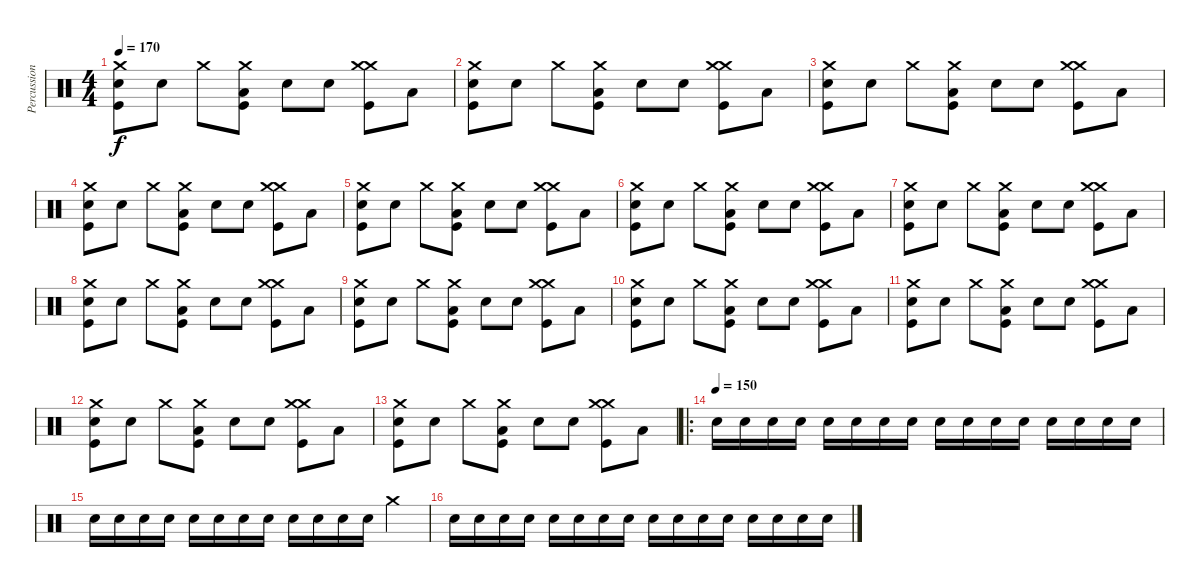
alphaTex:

\track ("Percussion" "Percussion") {instrument percussion}
\staff {score}
\articulation defaults
\ts (4 4)
\tempo 170
\clef neutral
\ks c
("Electric Snare (hit)" "Kick (hit)" "Crash medium (hit)").8{dy f} "Electric Snare (hit)".8 "Crash medium (hit)".8 ("Low Floor Tom (hit)" "Kick (hit)" "Crash medium (hit)").8 "Electric Snare (hit)".8 "Electric Snare (hit)".8 ("Crash medium (hit)" "Kick (hit)" "Crash medium (hit)").8 "Low Floor Tom (hit)".8 |
("Electric Snare (hit)" "Kick (hit)" "Crash medium (hit)").8 "Electric Snare (hit)".8 "Crash medium (hit)".8 ("Low Floor Tom (hit)" "Kick (hit)" "Crash medium (hit)").8 "Electric Snare (hit)".8 "Electric Snare (hit)".8 ("Crash medium (hit)" "Kick (hit)" "Crash medium (hit)").8 "Low Floor Tom (hit)".8 |
("Electric Snare (hit)" "Kick (hit)" "Crash medium (hit)").8 "Electric Snare (hit)".8 "Crash medium (hit)".8 ("Low Floor Tom (hit)" "Kick (hit)" "Crash medium (hit)").8 "Electric Snare (hit)".8 "Electric Snare (hit)".8 ("Crash medium (hit)" "Kick (hit)" "Crash medium (hit)").8 "Low Floor Tom (hit)".8 |
("Electric Snare (hit)" "Kick (hit)" "Crash medium (hit)").8 "Electric Snare (hit)".8 "Crash medium (hit)".8 ("Low Floor Tom (hit)" "Kick (hit)" "Crash medium (hit)").8 "Electric Snare (hit)".8 "Electric Snare (hit)".8 ("Crash medium (hit)" "Kick (hit)" "Crash medium (hit)").8 "Low Floor Tom (hit)".8 |
("Electric Snare (hit)" "Kick (hit)" "Crash medium (hit)").8 "Electric Snare (hit)".8 "Crash medium (hit)".8 ("Low Floor Tom (hit)" "Kick (hit)" "Crash medium (hit)").8 "Electric Snare (hit)".8 "Electric Snare (hit)".8 ("Crash medium (hit)" "Kick (hit)" "Crash medium (hit)").8 "Low Floor Tom (hit)".8 |
("Electric Snare (hit)" "Kick (hit)" "Crash medium (hit)").8 "Electric Snare (hit)".8 "Crash medium (hit)".8 ("Low Floor Tom (hit)" "Kick (hit)" "Crash medium (hit)").8 "Electric Snare (hit)".8 "Electric Snare (hit)".8 ("Crash medium (hit)" "Kick (hit)" "Crash medium (hit)").8 "Low Floor Tom (hit)".8 |
("Electric Snare (hit)" "Kick (hit)" "Crash medium (hit)").8 "Electric Snare (hit)".8 "Crash medium (hit)".8 ("Low Floor Tom (hit)" "Kick (hit)" "Crash medium (hit)").8 "Electric Snare (hit)".8 "Electric Snare (hit)".8 ("Crash medium (hit)" "Kick (hit)" "Crash medium (hit)").8 "Low Floor Tom (hit)".8 |
("Electric Snare (hit)" "Kick (hit)" "Crash medium (hit)").8 "Electric Snare (hit)".8 "Crash medium (hit)".8 ("Low Floor Tom (hit)" "Kick (hit)" "Crash medium (hit)").8 "Electric Snare (hit)".8 "Electric Snare (hit)".8 ("Crash medium (hit)" "Kick (hit)" "Crash medium (hit)").8 "Low Floor Tom (hit)".8 |
("Electric Snare (hit)" "Kick (hit)" "Crash medium (hit)").8 "Electric Snare (hit)".8 "Crash medium (hit)".8 ("Low Floor Tom (hit)" "Kick (hit)" "Crash medium (hit)").8 "Electric Snare (hit)".8 "Electric Snare (hit)".8 ("Crash medium (hit)" "Kick (hit)" "Crash medium (hit)").8 "Low Floor Tom (hit)".8 |
("Electric Snare (hit)" "Kick (hit)" "Crash medium (hit)").8 "Electric Snare (hit)".8 "Crash medium (hit)".8 ("Low Floor Tom (hit)" "Kick (hit)" "Crash medium (hit)").8 "Electric Snare (hit)".8 "Electric Snare (hit)".8 ("Crash medium (hit)" "Kick (hit)" "Crash medium (hit)").8 "Low Floor Tom (hit)".8 |
("Electric Snare (hit)" "Kick (hit)" "Crash medium (hit)").8 "Electric Snare (hit)".8 "Crash medium (hit)".8 ("Low Floor Tom (hit)" "Kick (hit)" "Crash medium (hit)").8 "Electric Snare (hit)".8 "Electric Snare (hit)".8 ("Crash medium (hit)" "Kick (hit)" "Crash medium (hit)").8 "Low Floor Tom (hit)".8 |
("Electric Snare (hit)" "Kick (hit)" "Crash medium (hit)").8 "Electric Snare (hit)".8 "Crash medium (hit)".8 ("Low Floor Tom (hit)" "Kick (hit)" "Crash medium (hit)").8 "Electric Snare (hit)".8 "Electric Snare (hit)".8 ("Crash medium (hit)" "Kick (hit)" "Crash medium (hit)").8 "Low Floor Tom (hit)".8 |
("Electric Snare (hit)" "Kick (hit)" "Crash medium (hit)").8 "Electric Snare (hit)".8 "Crash medium (hit)".8 ("Low Floor Tom (hit)" "Kick (hit)" "Crash medium (hit)").8 "Electric Snare (hit)".8 "Electric Snare (hit)".8 ("Crash medium (hit)" "Kick (hit)" "Crash medium (hit)").8 "Low Floor Tom (hit)".8 |
\ro
\tempo (150)
"Electric Snare (hit)".16 "Electric Snare (hit)".16 "Electric Snare (hit)".16 "Electric Snare (hit)".16 "Electric Snare (hit)".16 "Electric Snare (hit)".16 "Electric Snare (hit)".16 "Electric Snare (hit)".16 "Electric Snare (hit)".16 "Electric Snare (hit)".16 "Electric Snare (hit)".16 "Electric Snare (hit)".16 "Electric Snare (hit)".16 "Electric Snare (hit)".16 "Electric Snare (hit)".16 "Electric Snare (hit)".16 |
"Electric Snare (hit)".16 "Electric Snare (hit)".16 "Electric Snare (hit)".16 "Electric Snare (hit)".16 "Electric Snare (hit)".16 "Electric Snare (hit)".16 "Electric Snare (hit)".16 "Electric Snare (hit)".16 "Electric Snare (hit)".16 "Electric Snare (hit)".16 "Electric Snare (hit)".16 "Electric Snare (hit)".16 "Crash medium (hit)".4 |
"Electric Snare (hit)".16 "Electric Snare (hit)".16 "Electric Snare (hit)".16 "Electric Snare (hit)".16 "Electric Snare (hit)".16 "Electric Snare (hit)".16 "Electric Snare (hit)".16 "Electric Snare (hit)".16 "Electric Snare (hit)".16 "Electric Snare (hit)".16 "Electric Snare (hit)".16 "Electric Snare (hit)".16 "Electric Snare (hit)".16 "Electric Snare (hit)".16 "Electric Snare (hit)".16 "Electric Snare (hit)".16
